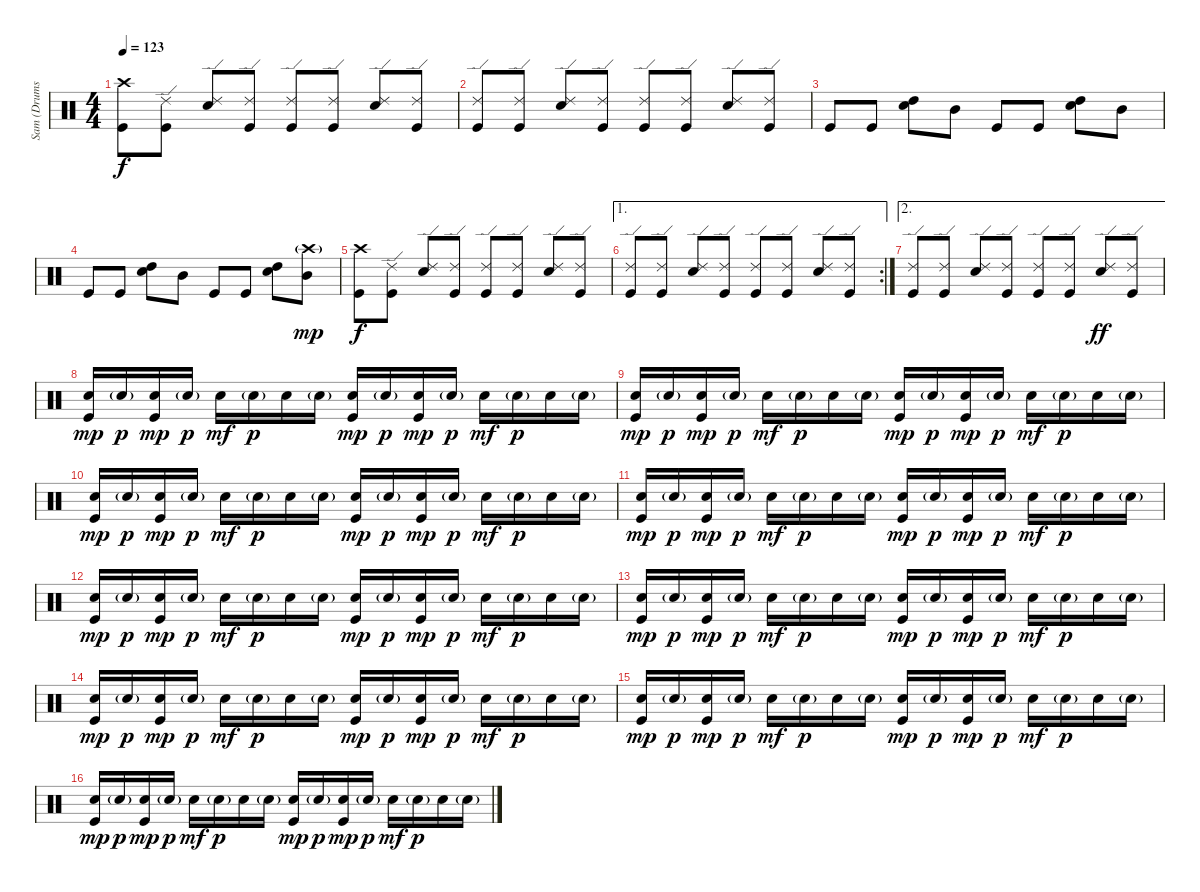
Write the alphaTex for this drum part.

\track ("Sam (Drums)" "Sam (Drums") {instrument percussion}
\staff {score}
\articulation defaults
\ts (4 4)
\tempo 123
\clef neutral
\ks c
("Crash high (hit)" "Kick (hit)").8{dy f} ("Ride (edge) 2" "Kick (hit)").8 ("Ride (edge) 2" "Snare (hit) 2").8 ("Ride (edge) 2" "Kick (hit)").8 ("Ride (edge) 2" "Kick (hit)").8 ("Ride (edge) 2" "Kick (hit)").8 ("Ride (edge) 2" "Snare (hit) 2").8 ("Ride (edge) 2" "Kick (hit)").8 |
("Ride (edge) 2" "Kick (hit)").8 ("Ride (edge) 2" "Kick (hit)").8 ("Ride (edge) 2" "Snare (hit) 2").8 ("Ride (edge) 2" "Kick (hit)").8 ("Ride (edge) 2" "Kick (hit)").8 ("Ride (edge) 2" "Kick (hit)").8 ("Ride (edge) 2" "Snare (hit) 2").8 ("Ride (edge) 2" "Kick (hit)").8 |
"Kick (hit)".8 "Kick (hit)".8 ("High Tom (hit)" "Snare (hit) 2").8 "Mid Tom (hit)".8 "Kick (hit)".8 "Kick (hit)".8 ("High Tom (hit)" "Snare (hit) 2").8 "Mid Tom (hit)".8 |
"Kick (hit)".8 "Kick (hit)".8 ("High Tom (hit)" "Snare (hit) 2").8 "Mid Tom (hit)".8 "Kick (hit)".8 "Kick (hit)".8 ("High Tom (hit)" "Snare (hit) 2").8 ("Crash high (hit)"{g} "Mid Tom (hit)").8{dy mp} |
("Crash high (hit)" "Kick (hit)").8{dy f} ("Ride (edge) 2" "Kick (hit)").8 ("Ride (edge) 2" "Snare (hit) 2").8 ("Ride (edge) 2" "Kick (hit)").8 ("Ride (edge) 2" "Kick (hit)").8 ("Ride (edge) 2" "Kick (hit)").8 ("Ride (edge) 2" "Snare (hit) 2").8 ("Ride (edge) 2" "Kick (hit)").8 |
\ae 1
\rc 2
("Ride (edge) 2" "Kick (hit)").8 ("Ride (edge) 2" "Kick (hit)").8 ("Ride (edge) 2" "Snare (hit) 2").8 ("Ride (edge) 2" "Kick (hit)").8 ("Ride (edge) 2" "Kick (hit)").8 ("Ride (edge) 2" "Kick (hit)").8 ("Ride (edge) 2" "Snare (hit) 2").8 ("Ride (edge) 2" "Kick (hit)").8 |
\ae 2
("Ride (edge) 2" "Kick (hit)").8 ("Ride (edge) 2" "Kick (hit)").8 ("Ride (edge) 2" "Snare (hit) 2").8 ("Ride (edge) 2" "Kick (hit)").8 ("Ride (edge) 2" "Kick (hit)").8 ("Ride (edge) 2" "Kick (hit)").8 ("Ride (edge) 2" "Snare (hit) 2").8{dy ff} ("Ride (edge) 2" "Kick (hit)").8 |
("Snare (hit) 2" "Kick (hit)").16{dy mp} "Snare (hit) 2"{g}.16{dy p} ("Snare (hit) 2" "Kick (hit)").16{dy mp} "Snare (hit) 2"{g}.16{dy p} "Snare (hit) 2".16{dy mf} "Snare (hit) 2"{g}.16{dy p} "Snare (hit) 2".16 "Snare (hit) 2"{g}.16 ("Snare (hit) 2" "Kick (hit)").16{dy mp} "Snare (hit) 2"{g}.16{dy p} ("Snare (hit) 2" "Kick (hit)").16{dy mp} "Snare (hit) 2"{g}.16{dy p} "Snare (hit) 2".16{dy mf} "Snare (hit) 2"{g}.16{dy p} "Snare (hit) 2".16 "Snare (hit) 2"{g}.16 |
("Snare (hit) 2" "Kick (hit)").16{dy mp} "Snare (hit) 2"{g}.16{dy p} ("Snare (hit) 2" "Kick (hit)").16{dy mp} "Snare (hit) 2"{g}.16{dy p} "Snare (hit) 2".16{dy mf} "Snare (hit) 2"{g}.16{dy p} "Snare (hit) 2".16 "Snare (hit) 2"{g}.16 ("Snare (hit) 2" "Kick (hit)").16{dy mp} "Snare (hit) 2"{g}.16{dy p} ("Snare (hit) 2" "Kick (hit)").16{dy mp} "Snare (hit) 2"{g}.16{dy p} "Snare (hit) 2".16{dy mf} "Snare (hit) 2"{g}.16{dy p} "Snare (hit) 2".16 "Snare (hit) 2"{g}.16 |
("Snare (hit) 2" "Kick (hit)").16{dy mp} "Snare (hit) 2"{g}.16{dy p} ("Snare (hit) 2" "Kick (hit)").16{dy mp} "Snare (hit) 2"{g}.16{dy p} "Snare (hit) 2".16{dy mf} "Snare (hit) 2"{g}.16{dy p} "Snare (hit) 2".16 "Snare (hit) 2"{g}.16 ("Snare (hit) 2" "Kick (hit)").16{dy mp} "Snare (hit) 2"{g}.16{dy p} ("Snare (hit) 2" "Kick (hit)").16{dy mp} "Snare (hit) 2"{g}.16{dy p} "Snare (hit) 2".16{dy mf} "Snare (hit) 2"{g}.16{dy p} "Snare (hit) 2".16 "Snare (hit) 2"{g}.16 |
("Snare (hit) 2" "Kick (hit)").16{dy mp} "Snare (hit) 2"{g}.16{dy p} ("Snare (hit) 2" "Kick (hit)").16{dy mp} "Snare (hit) 2"{g}.16{dy p} "Snare (hit) 2".16{dy mf} "Snare (hit) 2"{g}.16{dy p} "Snare (hit) 2".16 "Snare (hit) 2"{g}.16 ("Snare (hit) 2" "Kick (hit)").16{dy mp} "Snare (hit) 2"{g}.16{dy p} ("Snare (hit) 2" "Kick (hit)").16{dy mp} "Snare (hit) 2"{g}.16{dy p} "Snare (hit) 2".16{dy mf} "Snare (hit) 2"{g}.16{dy p} "Snare (hit) 2".16 "Snare (hit) 2"{g}.16 |
("Snare (hit) 2" "Kick (hit)").16{dy mp} "Snare (hit) 2"{g}.16{dy p} ("Snare (hit) 2" "Kick (hit)").16{dy mp} "Snare (hit) 2"{g}.16{dy p} "Snare (hit) 2".16{dy mf} "Snare (hit) 2"{g}.16{dy p} "Snare (hit) 2".16 "Snare (hit) 2"{g}.16 ("Snare (hit) 2" "Kick (hit)").16{dy mp} "Snare (hit) 2"{g}.16{dy p} ("Snare (hit) 2" "Kick (hit)").16{dy mp} "Snare (hit) 2"{g}.16{dy p} "Snare (hit) 2".16{dy mf} "Snare (hit) 2"{g}.16{dy p} "Snare (hit) 2".16 "Snare (hit) 2"{g}.16 |
("Snare (hit) 2" "Kick (hit)").16{dy mp} "Snare (hit) 2"{g}.16{dy p} ("Snare (hit) 2" "Kick (hit)").16{dy mp} "Snare (hit) 2"{g}.16{dy p} "Snare (hit) 2".16{dy mf} "Snare (hit) 2"{g}.16{dy p} "Snare (hit) 2".16 "Snare (hit) 2"{g}.16 ("Snare (hit) 2" "Kick (hit)").16{dy mp} "Snare (hit) 2"{g}.16{dy p} ("Snare (hit) 2" "Kick (hit)").16{dy mp} "Snare (hit) 2"{g}.16{dy p} "Snare (hit) 2".16{dy mf} "Snare (hit) 2"{g}.16{dy p} "Snare (hit) 2".16 "Snare (hit) 2"{g}.16 |
("Snare (hit) 2" "Kick (hit)").16{dy mp} "Snare (hit) 2"{g}.16{dy p} ("Snare (hit) 2" "Kick (hit)").16{dy mp} "Snare (hit) 2"{g}.16{dy p} "Snare (hit) 2".16{dy mf} "Snare (hit) 2"{g}.16{dy p} "Snare (hit) 2".16 "Snare (hit) 2"{g}.16 ("Snare (hit) 2" "Kick (hit)").16{dy mp} "Snare (hit) 2"{g}.16{dy p} ("Snare (hit) 2" "Kick (hit)").16{dy mp} "Snare (hit) 2"{g}.16{dy p} "Snare (hit) 2".16{dy mf} "Snare (hit) 2"{g}.16{dy p} "Snare (hit) 2".16 "Snare (hit) 2"{g}.16 |
("Snare (hit) 2" "Kick (hit)").16{dy mp} "Snare (hit) 2"{g}.16{dy p} ("Snare (hit) 2" "Kick (hit)").16{dy mp} "Snare (hit) 2"{g}.16{dy p} "Snare (hit) 2".16{dy mf} "Snare (hit) 2"{g}.16{dy p} "Snare (hit) 2".16 "Snare (hit) 2"{g}.16 ("Snare (hit) 2" "Kick (hit)").16{dy mp} "Snare (hit) 2"{g}.16{dy p} ("Snare (hit) 2" "Kick (hit)").16{dy mp} "Snare (hit) 2"{g}.16{dy p} "Snare (hit) 2".16{dy mf} "Snare (hit) 2"{g}.16{dy p} "Snare (hit) 2".16 "Snare (hit) 2"{g}.16 |
("Snare (hit) 2" "Kick (hit)").16{dy mp} "Snare (hit) 2"{g}.16{dy p} ("Snare (hit) 2" "Kick (hit)").16{dy mp} "Snare (hit) 2"{g}.16{dy p} "Snare (hit) 2".16{dy mf} "Snare (hit) 2"{g}.16{dy p} "Snare (hit) 2".16 "Snare (hit) 2"{g}.16 ("Snare (hit) 2" "Kick (hit)").16{dy mp} "Snare (hit) 2"{g}.16{dy p} ("Snare (hit) 2" "Kick (hit)").16{dy mp} "Snare (hit) 2"{g}.16{dy p} "Snare (hit) 2".16{dy mf} "Snare (hit) 2"{g}.16{dy p} "Snare (hit) 2".16 "Snare (hit) 2"{g}.16
